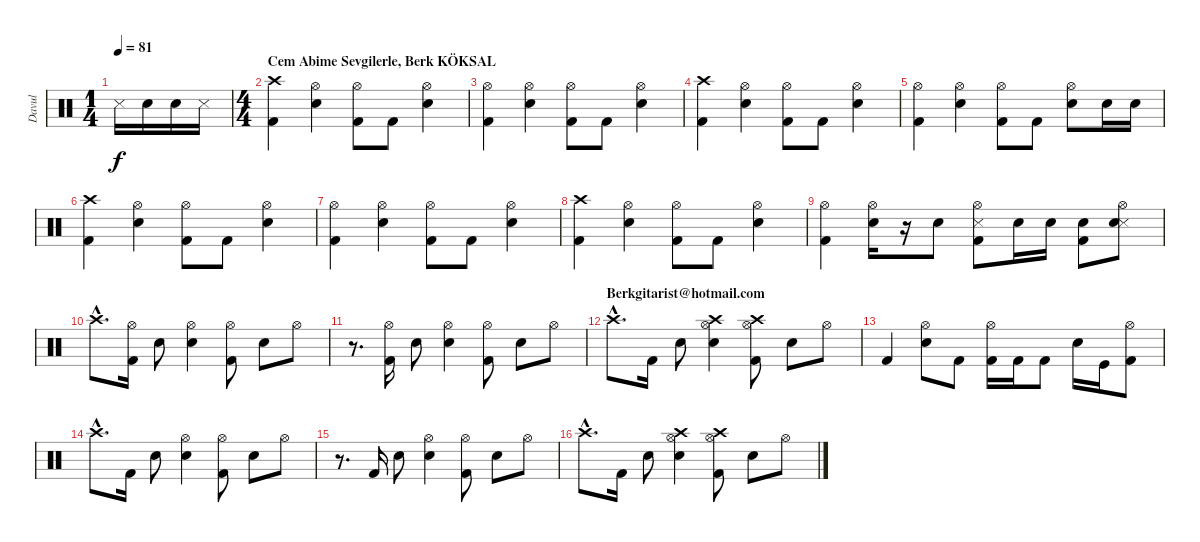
\track ("Davul" "Davul") {instrument percussion}
\staff {score}
\articulation defaults
\ts (1 4)
\tempo 81
\clef neutral
\ks c "Snare (side stick) 3".16{dy f} "Snare (hit) 2".16 "Snare (hit) 2".16 "Snare (side stick) 3".16
|
\ts (4 4)
\section ("" "Cem Abime Sevgilerle, Berk KÖKSAL")
("Crash high (hit)" "Kick (hit) 2").4 ("Hi-Hat (open)" "Snare (hit) 2").4 ("Hi-Hat (open)" "Kick (hit) 2").8 "Kick (hit) 2".8 ("Hi-Hat (open)" "Snare (hit) 2").4 |
("Hi-Hat (open)" "Kick (hit) 2").4 ("Hi-Hat (open)" "Snare (hit) 2").4 ("Hi-Hat (open)" "Kick (hit) 2").8 "Kick (hit) 2".8 ("Hi-Hat (open)" "Snare (hit) 2").4 |
("Crash high (hit)" "Kick (hit) 2").4 ("Hi-Hat (open)" "Snare (hit) 2").4 ("Hi-Hat (open)" "Kick (hit) 2").8 "Kick (hit) 2".8 ("Hi-Hat (open)" "Snare (hit) 2").4 |
("Hi-Hat (open)" "Kick (hit) 2").4 ("Hi-Hat (open)" "Snare (hit) 2").4 ("Hi-Hat (open)" "Kick (hit) 2").8 "Kick (hit) 2".8 ("Hi-Hat (open)" "Snare (hit) 2").8 "Snare (hit) 2".16 "Snare (hit) 2".16 |
("Crash high (hit)" "Kick (hit) 2").4 ("Hi-Hat (open)" "Snare (hit) 2").4 ("Hi-Hat (open)" "Kick (hit) 2").8 "Kick (hit) 2".8 ("Hi-Hat (open)" "Snare (hit) 2").4 |
("Hi-Hat (open)" "Kick (hit) 2").4 ("Hi-Hat (open)" "Snare (hit) 2").4 ("Hi-Hat (open)" "Kick (hit) 2").8 "Kick (hit) 2".8 ("Hi-Hat (open)" "Snare (hit) 2").4 |
("Crash high (hit)" "Kick (hit) 2").4 ("Hi-Hat (open)" "Snare (hit) 2").4 ("Hi-Hat (open)" "Kick (hit) 2").8 "Kick (hit) 2".8 ("Hi-Hat (open)" "Snare (hit) 2").4 |
("Hi-Hat (open)" "Kick (hit) 2").4 ("Hi-Hat (open)" "Snare (hit) 2").16 r.16 "Snare (hit) 2".8 ("Hi-Hat (open)" "Snare (side stick) 3" "Kick (hit) 2").8 "Snare (hit) 2".16 "Snare (hit) 2".16 ("Snare (hit) 2" "Kick (hit) 2").8 ("Hi-Hat (open)" "Snare (side stick) 3" "Snare (hit) 2").8 |
"Crash high (hit)"{hac}.8{d} ("Hi-Hat (open)" "Kick (hit) 2").16 "Snare (hit) 2".8 ("Hi-Hat (open)" "Snare (hit) 2").4 ("Hi-Hat (open)" "Kick (hit) 2").8 "Snare (hit) 2".8 "Hi-Hat (open)".8 |
r.8{d} ("Hi-Hat (open)" "Kick (hit) 2").16 "Snare (hit) 2".8 ("Hi-Hat (open)" "Snare (hit) 2").4 ("Hi-Hat (open)" "Kick (hit) 2").8 "Snare (hit) 2".8 "Hi-Hat (open)".8 |
\section ("" "Berkgitarist@hotmail.com")
"Crash high (hit)"{hac}.8{d} "Kick (hit) 2".16 "Snare (hit) 2".8 ("Hi-Hat (open)" "Snare (hit) 2" "Crash high (hit)").4 ("Hi-Hat (open)" "Crash high (hit)" "Kick (hit) 2").8 "Snare (hit) 2".8 "Hi-Hat (open)".8 |
"Kick (hit) 2".4 ("Hi-Hat (open)" "Snare (hit) 2").8 "Kick (hit) 2".8 ("Hi-Hat (open)" "Kick (hit) 2").16 "Kick (hit) 2".16 "Kick (hit) 2".8 "Snare (hit) 2".16 "Kick (hit)".16 ("Hi-Hat (open)" "Kick (hit) 2").8 |
"Crash high (hit)"{hac}.8{d} "Kick (hit) 2".16 "Snare (hit) 2".8 ("Hi-Hat (open)" "Snare (hit) 2").4 ("Hi-Hat (open)" "Kick (hit) 2").8 "Snare (hit) 2".8 "Hi-Hat (open)".8 |
r.8{d} "Kick (hit) 2".16 "Snare (hit) 2".8 ("Hi-Hat (open)" "Snare (hit) 2").4 ("Hi-Hat (open)" "Kick (hit) 2").8 "Snare (hit) 2".8 "Hi-Hat (open)".8 |
"Crash high (hit)"{hac}.8{d} "Kick (hit) 2".16 "Snare (hit) 2".8 ("Hi-Hat (open)" "Snare (hit) 2" "Crash high (hit)").4 ("Hi-Hat (open)" "Crash high (hit)" "Kick (hit) 2").8 "Snare (hit) 2".8 "Hi-Hat (open)".8
